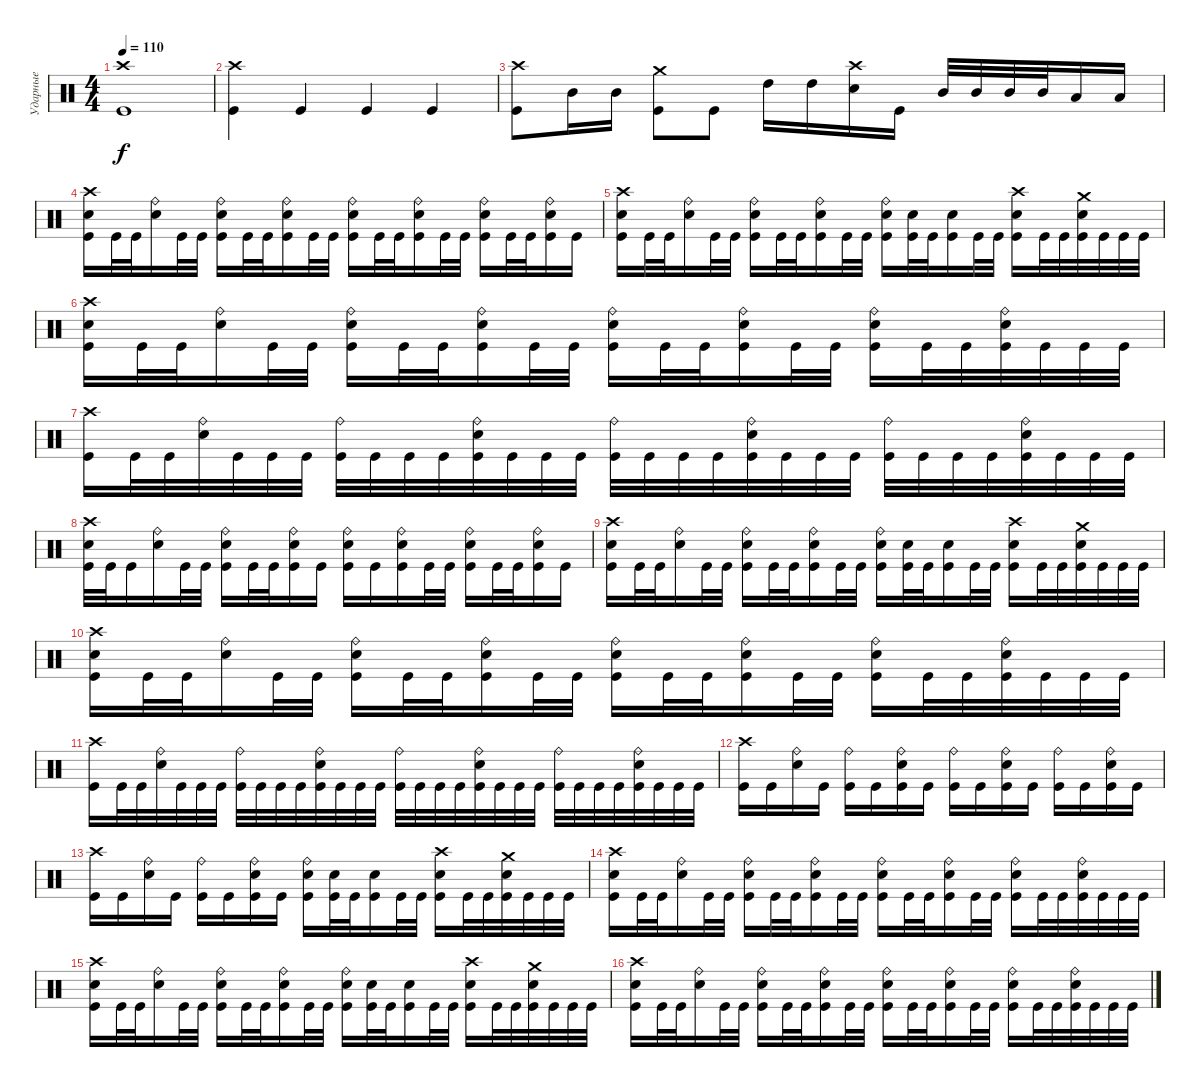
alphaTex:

\track ("Ударные" "Ударные") {instrument percussion}
\staff {score}
\articulation defaults
\ts (4 4)
\tempo 110
\clef neutral
\ks c
("Crash high (hit)" "Kick (hit)").1{dy f} |
("Crash high (hit)" "Kick (hit)").4 "Kick (hit)".4 "Kick (hit)".4 "Kick (hit)".4 |
("Crash high (hit)" "Kick (hit)").8 "Mid Tom (hit)".16 "Mid Tom (hit)".16 ("Crash medium (hit)" "Kick (hit)").8 "Kick (hit)".8 "High Tom (hit)".16 "High Tom (hit)".16 ("Crash high (hit)" "Electric Snare (hit)").16 "Kick (hit)".16 "Mid Tom (hit)".32 "Mid Tom (hit)".32 "Mid Tom (hit)".32 "Mid Tom (hit)".32 "Low Tom (hit)".16 "Low Tom (hit)".16 |
("Crash high (hit)" "Electric Snare (hit)" "Kick (hit)").16 "Kick (hit)".32 "Kick (hit)".32 ("Ride (bell)" "Electric Snare (hit)").16 "Kick (hit)".32 "Kick (hit)".32 ("Ride (bell)" "Electric Snare (hit)" "Kick (hit)").16 "Kick (hit)".32 "Kick (hit)".32 ("Ride (bell)" "Electric Snare (hit)" "Kick (hit)").16 "Kick (hit)".32 "Kick (hit)".32 ("Ride (bell)" "Electric Snare (hit)" "Kick (hit)").16 "Kick (hit)".32 "Kick (hit)".32 ("Ride (bell)" "Electric Snare (hit)" "Kick (hit)").16 "Kick (hit)".32 "Kick (hit)".32 ("Ride (bell)" "Electric Snare (hit)" "Kick (hit)").16 "Kick (hit)".32 "Kick (hit)".32 ("Ride (bell)" "Electric Snare (hit)" "Kick (hit)").16 "Kick (hit)".16 |
("Crash high (hit)" "Electric Snare (hit)" "Kick (hit)").16 "Kick (hit)".32 "Kick (hit)".32 ("Ride (bell)" "Electric Snare (hit)").16 "Kick (hit)".32 "Kick (hit)".32 ("Ride (bell)" "Electric Snare (hit)" "Kick (hit)").16 "Kick (hit)".32 "Kick (hit)".32 ("Ride (bell)" "Electric Snare (hit)" "Kick (hit)").16 "Kick (hit)".32 "Kick (hit)".32 ("Ride (bell)" "Electric Snare (hit)" "Kick (hit)").16 ("Electric Snare (hit)" "Kick (hit)").32 "Kick (hit)".32 ("Electric Snare (hit)" "Kick (hit)").16 "Kick (hit)".32 "Kick (hit)".32 ("Crash high (hit)" "Electric Snare (hit)" "Kick (hit)").16 "Kick (hit)".32 "Kick (hit)".32 ("Crash medium (hit)" "Electric Snare (hit)" "Kick (hit)").32 "Kick (hit)".32 "Kick (hit)".32 "Kick (hit)".32 |
("Crash high (hit)" "Electric Snare (hit)" "Kick (hit)").16 "Kick (hit)".32 "Kick (hit)".32 ("Ride (bell)" "Electric Snare (hit)").16 "Kick (hit)".32 "Kick (hit)".32 ("Ride (bell)" "Electric Snare (hit)" "Kick (hit)").16 "Kick (hit)".32 "Kick (hit)".32 ("Ride (bell)" "Electric Snare (hit)" "Kick (hit)").16 "Kick (hit)".32 "Kick (hit)".32 ("Ride (bell)" "Electric Snare (hit)" "Kick (hit)").16 "Kick (hit)".32 "Kick (hit)".32 ("Ride (bell)" "Electric Snare (hit)" "Kick (hit)").16 "Kick (hit)".32 "Kick (hit)".32 ("Ride (bell)" "Electric Snare (hit)" "Kick (hit)").16 "Kick (hit)".32 "Kick (hit)".32 ("Ride (bell)" "Electric Snare (hit)" "Kick (hit)").32 "Kick (hit)".32 "Kick (hit)".32 "Kick (hit)".32 |
("Crash high (hit)" "Kick (hit)").16 "Kick (hit)".32 "Kick (hit)".32 ("Ride (bell)" "Electric Snare (hit)").32 "Kick (hit)".32 "Kick (hit)".32 "Kick (hit)".32 ("Ride (bell)" "Kick (hit)").32 "Kick (hit)".32 "Kick (hit)".32 "Kick (hit)".32 ("Ride (bell)" "Electric Snare (hit)" "Kick (hit)").32 "Kick (hit)".32 "Kick (hit)".32 "Kick (hit)".32 ("Ride (bell)" "Kick (hit)").32 "Kick (hit)".32 "Kick (hit)".32 "Kick (hit)".32 ("Ride (bell)" "Electric Snare (hit)" "Kick (hit)").32 "Kick (hit)".32 "Kick (hit)".32 "Kick (hit)".32 ("Ride (bell)" "Kick (hit)").32 "Kick (hit)".32 "Kick (hit)".32 "Kick (hit)".32 ("Ride (bell)" "Electric Snare (hit)" "Kick (hit)").32 "Kick (hit)".32 "Kick (hit)".32 "Kick (hit)".32 |
("Crash high (hit)" "Electric Snare (hit)" "Kick (hit)").32 "Kick (hit)".32 "Kick (hit)".16 ("Ride (bell)" "Electric Snare (hit)").16 "Kick (hit)".32 "Kick (hit)".32 ("Ride (bell)" "Electric Snare (hit)" "Kick (hit)").16 "Kick (hit)".32 "Kick (hit)".32 ("Ride (bell)" "Electric Snare (hit)" "Kick (hit)").16 "Kick (hit)".16 ("Ride (bell)" "Electric Snare (hit)" "Kick (hit)").16 "Kick (hit)".16 ("Ride (bell)" "Electric Snare (hit)" "Kick (hit)").16 "Kick (hit)".32 "Kick (hit)".32 ("Ride (bell)" "Electric Snare (hit)" "Kick (hit)").16 "Kick (hit)".32 "Kick (hit)".32 ("Ride (bell)" "Electric Snare (hit)" "Kick (hit)").16 "Kick (hit)".16 |
("Crash high (hit)" "Electric Snare (hit)" "Kick (hit)").16 "Kick (hit)".32 "Kick (hit)".32 ("Ride (bell)" "Electric Snare (hit)").16 "Kick (hit)".32 "Kick (hit)".32 ("Ride (bell)" "Electric Snare (hit)" "Kick (hit)").16 "Kick (hit)".32 "Kick (hit)".32 ("Ride (bell)" "Electric Snare (hit)" "Kick (hit)").16 "Kick (hit)".32 "Kick (hit)".32 ("Ride (bell)" "Electric Snare (hit)" "Kick (hit)").16 ("Electric Snare (hit)" "Kick (hit)").32 "Kick (hit)".32 ("Electric Snare (hit)" "Kick (hit)").16 "Kick (hit)".32 "Kick (hit)".32 ("Crash high (hit)" "Electric Snare (hit)" "Kick (hit)").16 "Kick (hit)".32 "Kick (hit)".32 ("Crash medium (hit)" "Electric Snare (hit)" "Kick (hit)").32 "Kick (hit)".32 "Kick (hit)".32 "Kick (hit)".32 |
("Crash high (hit)" "Electric Snare (hit)" "Kick (hit)").16 "Kick (hit)".32 "Kick (hit)".32 ("Ride (bell)" "Electric Snare (hit)").16 "Kick (hit)".32 "Kick (hit)".32 ("Ride (bell)" "Electric Snare (hit)" "Kick (hit)").16 "Kick (hit)".32 "Kick (hit)".32 ("Ride (bell)" "Electric Snare (hit)" "Kick (hit)").16 "Kick (hit)".32 "Kick (hit)".32 ("Ride (bell)" "Electric Snare (hit)" "Kick (hit)").16 "Kick (hit)".32 "Kick (hit)".32 ("Ride (bell)" "Electric Snare (hit)" "Kick (hit)").16 "Kick (hit)".32 "Kick (hit)".32 ("Ride (bell)" "Electric Snare (hit)" "Kick (hit)").16 "Kick (hit)".32 "Kick (hit)".32 ("Ride (bell)" "Electric Snare (hit)" "Kick (hit)").32 "Kick (hit)".32 "Kick (hit)".32 "Kick (hit)".32 |
("Crash high (hit)" "Kick (hit)").16 "Kick (hit)".32 "Kick (hit)".32 ("Ride (bell)" "Electric Snare (hit)").32 "Kick (hit)".32 "Kick (hit)".32 "Kick (hit)".32 ("Ride (bell)" "Kick (hit)").32 "Kick (hit)".32 "Kick (hit)".32 "Kick (hit)".32 ("Ride (bell)" "Electric Snare (hit)" "Kick (hit)").32 "Kick (hit)".32 "Kick (hit)".32 "Kick (hit)".32 ("Ride (bell)" "Kick (hit)").32 "Kick (hit)".32 "Kick (hit)".32 "Kick (hit)".32 ("Ride (bell)" "Electric Snare (hit)" "Kick (hit)").32 "Kick (hit)".32 "Kick (hit)".32 "Kick (hit)".32 ("Ride (bell)" "Kick (hit)").32 "Kick (hit)".32 "Kick (hit)".32 "Kick (hit)".32 ("Ride (bell)" "Electric Snare (hit)" "Kick (hit)").32 "Kick (hit)".32 "Kick (hit)".32 "Kick (hit)".32 |
("Crash high (hit)" "Kick (hit)").16 "Kick (hit)".16 ("Ride (bell)" "Electric Snare (hit)").16 "Kick (hit)".16 ("Ride (bell)" "Kick (hit)").16 "Kick (hit)".16 ("Ride (bell)" "Electric Snare (hit)" "Kick (hit)").16 "Kick (hit)".16 ("Ride (bell)" "Kick (hit)").16 "Kick (hit)".16 ("Ride (bell)" "Electric Snare (hit)" "Kick (hit)").16 "Kick (hit)".16 ("Ride (bell)" "Kick (hit)").16 "Kick (hit)".16 ("Ride (bell)" "Electric Snare (hit)" "Kick (hit)").16 "Kick (hit)".16 |
("Crash high (hit)" "Kick (hit)").16 "Kick (hit)".16 ("Ride (bell)" "Electric Snare (hit)").16 "Kick (hit)".16 ("Ride (bell)" "Kick (hit)").16 "Kick (hit)".16 ("Ride (bell)" "Electric Snare (hit)" "Kick (hit)").16 "Kick (hit)".16 ("Ride (bell)" "Electric Snare (hit)" "Kick (hit)").16 ("Electric Snare (hit)" "Kick (hit)").32 "Kick (hit)".32 ("Electric Snare (hit)" "Kick (hit)").16 "Kick (hit)".32 "Kick (hit)".32 ("Crash high (hit)" "Electric Snare (hit)" "Kick (hit)").16 "Kick (hit)".32 "Kick (hit)".32 ("Crash medium (hit)" "Electric Snare (hit)" "Kick (hit)").32 "Kick (hit)".32 "Kick (hit)".32 "Kick (hit)".32 |
("Crash high (hit)" "Electric Snare (hit)" "Kick (hit)").16 "Kick (hit)".32 "Kick (hit)".32 ("Ride (bell)" "Electric Snare (hit)").16 "Kick (hit)".32 "Kick (hit)".32 ("Ride (bell)" "Electric Snare (hit)" "Kick (hit)").16 "Kick (hit)".32 "Kick (hit)".32 ("Ride (bell)" "Electric Snare (hit)" "Kick (hit)").16 "Kick (hit)".32 "Kick (hit)".32 ("Ride (bell)" "Electric Snare (hit)" "Kick (hit)").16 "Kick (hit)".32 "Kick (hit)".32 ("Ride (bell)" "Electric Snare (hit)" "Kick (hit)").16 "Kick (hit)".32 "Kick (hit)".32 ("Ride (bell)" "Electric Snare (hit)" "Kick (hit)").16 "Kick (hit)".32 "Kick (hit)".32 ("Ride (bell)" "Electric Snare (hit)" "Kick (hit)").32 "Kick (hit)".32 "Kick (hit)".32 "Kick (hit)".32 |
("Crash high (hit)" "Electric Snare (hit)" "Kick (hit)").16 "Kick (hit)".32 "Kick (hit)".32 ("Ride (bell)" "Electric Snare (hit)").16 "Kick (hit)".32 "Kick (hit)".32 ("Ride (bell)" "Electric Snare (hit)" "Kick (hit)").16 "Kick (hit)".32 "Kick (hit)".32 ("Ride (bell)" "Electric Snare (hit)" "Kick (hit)").16 "Kick (hit)".32 "Kick (hit)".32 ("Ride (bell)" "Electric Snare (hit)" "Kick (hit)").16 ("Electric Snare (hit)" "Kick (hit)").32 "Kick (hit)".32 ("Electric Snare (hit)" "Kick (hit)").16 "Kick (hit)".32 "Kick (hit)".32 ("Crash high (hit)" "Electric Snare (hit)" "Kick (hit)").16 "Kick (hit)".32 "Kick (hit)".32 ("Crash medium (hit)" "Electric Snare (hit)" "Kick (hit)").32 "Kick (hit)".32 "Kick (hit)".32 "Kick (hit)".32 |
("Crash high (hit)" "Electric Snare (hit)" "Kick (hit)").16 "Kick (hit)".32 "Kick (hit)".32 ("Ride (bell)" "Electric Snare (hit)").16 "Kick (hit)".32 "Kick (hit)".32 ("Ride (bell)" "Electric Snare (hit)" "Kick (hit)").16 "Kick (hit)".32 "Kick (hit)".32 ("Ride (bell)" "Electric Snare (hit)" "Kick (hit)").16 "Kick (hit)".32 "Kick (hit)".32 ("Ride (bell)" "Electric Snare (hit)" "Kick (hit)").16 "Kick (hit)".32 "Kick (hit)".32 ("Ride (bell)" "Electric Snare (hit)" "Kick (hit)").16 "Kick (hit)".32 "Kick (hit)".32 ("Ride (bell)" "Electric Snare (hit)" "Kick (hit)").16 "Kick (hit)".32 "Kick (hit)".32 ("Ride (bell)" "Electric Snare (hit)" "Kick (hit)").32 "Kick (hit)".32 "Kick (hit)".32 "Kick (hit)".32
